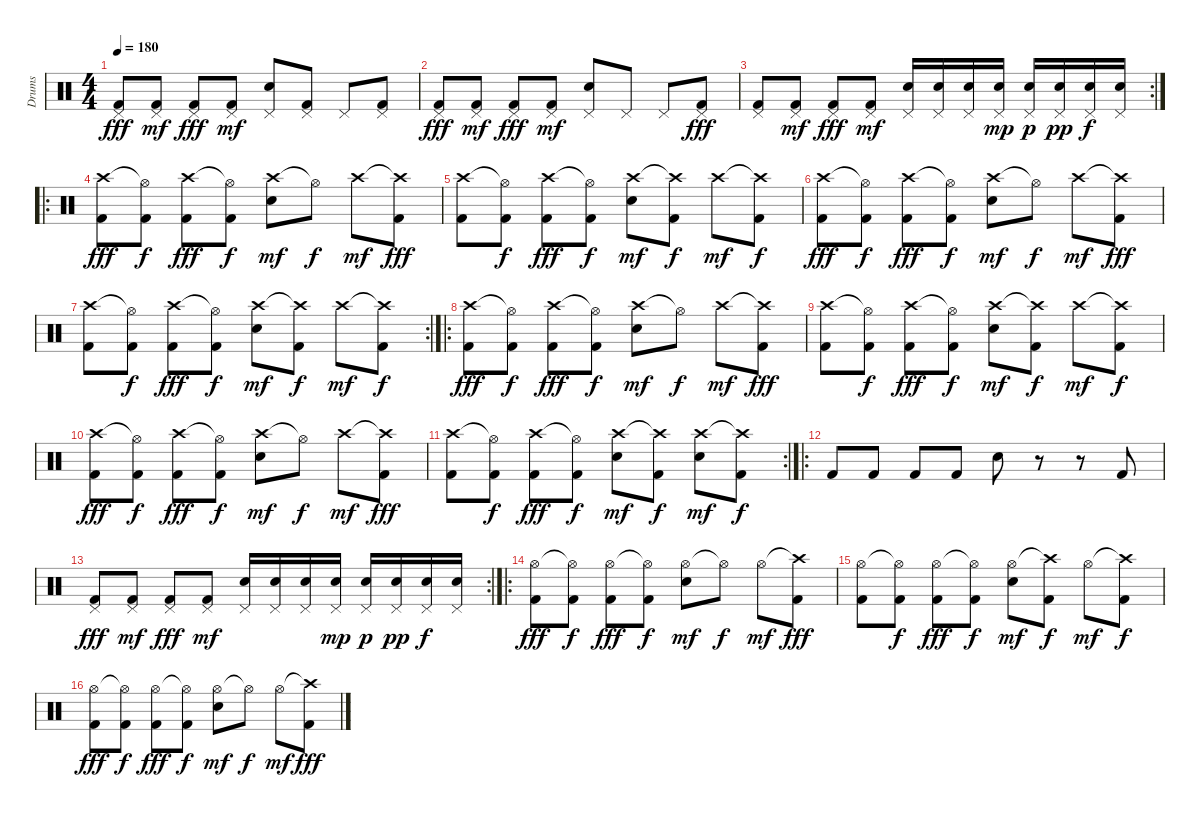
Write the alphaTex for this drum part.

\track ("Drums" "Drums") {instrument percussion}
\staff {score}
\articulation defaults
\ts (4 4)
\tempo 180
\clef neutral
\ks c
("Pedal Hi-Hat (hit)" "Kick (hit) 2").8{dy fff} ("Pedal Hi-Hat (hit)" "Kick (hit) 2").8{dy mf} ("Pedal Hi-Hat (hit)" "Kick (hit) 2").8{dy fff} ("Pedal Hi-Hat (hit)" "Kick (hit) 2").8{dy mf} ("Pedal Hi-Hat (hit)" "Electric Snare (hit)").8 ("Pedal Hi-Hat (hit)" "Kick (hit) 2").8 "Pedal Hi-Hat (hit)".8 ("Pedal Hi-Hat (hit)" "Kick (hit) 2").8 |
("Pedal Hi-Hat (hit)" "Kick (hit) 2").8{dy fff} ("Pedal Hi-Hat (hit)" "Kick (hit) 2").8{dy mf} ("Pedal Hi-Hat (hit)" "Kick (hit) 2").8{dy fff} ("Pedal Hi-Hat (hit)" "Kick (hit) 2").8{dy mf} ("Pedal Hi-Hat (hit)" "Electric Snare (hit)").8 "Pedal Hi-Hat (hit)".8 "Pedal Hi-Hat (hit)".8 ("Pedal Hi-Hat (hit)" "Kick (hit) 2").8{dy fff} |
\rc 2
("Pedal Hi-Hat (hit)" "Kick (hit) 2").8 ("Pedal Hi-Hat (hit)" "Kick (hit) 2").8{dy mf} ("Pedal Hi-Hat (hit)" "Kick (hit) 2").8{dy fff} ("Pedal Hi-Hat (hit)" "Kick (hit) 2").8{dy mf} ("Pedal Hi-Hat (hit)" "Electric Snare (hit)").16 ("Pedal Hi-Hat (hit)" "Electric Snare (hit)").16 ("Pedal Hi-Hat (hit)" "Electric Snare (hit)").16 ("Pedal Hi-Hat (hit)" "Electric Snare (hit)").16{dy mp} ("Pedal Hi-Hat (hit)" "Electric Snare (hit)").16{dy p} ("Pedal Hi-Hat (hit)" "Electric Snare (hit)").16{dy pp} ("Pedal Hi-Hat (hit)" "Electric Snare (hit)").16{dy f} ("Pedal Hi-Hat (hit)" "Electric Snare (hit)").16 |
\ro
("Crash high (hit)" "Kick (hit) 2").8{dy fff} ("Hi-Hat (open)"{t} "Kick (hit) 2").8{dy f} ("Crash high (hit)" "Kick (hit) 2").8{dy fff} ("Hi-Hat (open)"{t} "Kick (hit) 2").8{dy f} ("Crash high (hit)" "Electric Snare (hit)").8{dy mf} "Hi-Hat (open)"{t}.8{dy f} "Crash high (hit)".8{dy mf} ("Crash high (hit)"{t} "Kick (hit) 2").8{dy fff} |
("Crash high (hit)" "Kick (hit) 2").8 ("Hi-Hat (open)"{t} "Kick (hit) 2").8{dy f} ("Crash high (hit)" "Kick (hit) 2").8{dy fff} ("Hi-Hat (open)"{t} "Kick (hit) 2").8{dy f} ("Crash high (hit)" "Electric Snare (hit)").8{dy mf} ("Crash high (hit)"{t} "Kick (hit) 2").8{dy f} "Crash high (hit)".8{dy mf} ("Crash high (hit)"{t} "Kick (hit) 2").8{dy f} |
("Crash high (hit)" "Kick (hit) 2").8{dy fff} ("Hi-Hat (open)"{t} "Kick (hit) 2").8{dy f} ("Crash high (hit)" "Kick (hit) 2").8{dy fff} ("Hi-Hat (open)"{t} "Kick (hit) 2").8{dy f} ("Crash high (hit)" "Electric Snare (hit)").8{dy mf} "Hi-Hat (open)"{t}.8{dy f} "Crash high (hit)".8{dy mf} ("Crash high (hit)"{t} "Kick (hit) 2").8{dy fff} |
\rc 2
("Crash high (hit)" "Kick (hit) 2").8 ("Hi-Hat (open)"{t} "Kick (hit) 2").8{dy f} ("Crash high (hit)" "Kick (hit) 2").8{dy fff} ("Hi-Hat (open)"{t} "Kick (hit) 2").8{dy f} ("Crash high (hit)" "Electric Snare (hit)").8{dy mf} ("Crash high (hit)"{t} "Kick (hit) 2").8{dy f} "Crash high (hit)".8{dy mf} ("Crash high (hit)"{t} "Kick (hit) 2").8{dy f} |
\ro
("Crash high (hit)" "Kick (hit) 2").8{dy fff} ("Hi-Hat (open)"{t} "Kick (hit) 2").8{dy f} ("Crash high (hit)" "Kick (hit) 2").8{dy fff} ("Hi-Hat (open)"{t} "Kick (hit) 2").8{dy f} ("Crash high (hit)" "Electric Snare (hit)").8{dy mf} "Hi-Hat (open)"{t}.8{dy f} "Crash high (hit)".8{dy mf} ("Crash high (hit)"{t} "Kick (hit) 2").8{dy fff} |
("Crash high (hit)" "Kick (hit) 2").8 ("Hi-Hat (open)"{t} "Kick (hit) 2").8{dy f} ("Crash high (hit)" "Kick (hit) 2").8{dy fff} ("Hi-Hat (open)"{t} "Kick (hit) 2").8{dy f} ("Crash high (hit)" "Electric Snare (hit)").8{dy mf} ("Crash high (hit)"{t} "Kick (hit) 2").8{dy f} "Crash high (hit)".8{dy mf} ("Crash high (hit)"{t} "Kick (hit) 2").8{dy f} |
("Crash high (hit)" "Kick (hit) 2").8{dy fff} ("Hi-Hat (open)"{t} "Kick (hit) 2").8{dy f} ("Crash high (hit)" "Kick (hit) 2").8{dy fff} ("Hi-Hat (open)"{t} "Kick (hit) 2").8{dy f} ("Crash high (hit)" "Electric Snare (hit)").8{dy mf} "Hi-Hat (open)"{t}.8{dy f} "Crash high (hit)".8{dy mf} ("Crash high (hit)"{t} "Kick (hit) 2").8{dy fff} |
\rc 2
("Crash high (hit)" "Kick (hit) 2").8 ("Hi-Hat (open)"{t} "Kick (hit) 2").8{dy f} ("Crash high (hit)" "Kick (hit) 2").8{dy fff} ("Hi-Hat (open)"{t} "Kick (hit) 2").8{dy f} ("Crash high (hit)" "Electric Snare (hit)").8{dy mf} ("Crash high (hit)"{t} "Kick (hit) 2").8{dy f} ("Crash high (hit)" "Electric Snare (hit)").8{dy mf} ("Crash high (hit)"{t} "Kick (hit) 2").8{dy f} |
\ro "Kick (hit) 2".8 "Kick (hit) 2".8 "Kick (hit) 2".8 "Kick (hit) 2".8 "Electric Snare (hit)".8
r.8 r.8 "Kick (hit) 2".8 |
\rc 2
("Pedal Hi-Hat (hit)" "Kick (hit) 2").8{dy fff} ("Pedal Hi-Hat (hit)" "Kick (hit) 2").8{dy mf} ("Pedal Hi-Hat (hit)" "Kick (hit) 2").8{dy fff} ("Pedal Hi-Hat (hit)" "Kick (hit) 2").8{dy mf} ("Pedal Hi-Hat (hit)" "Electric Snare (hit)").16 ("Pedal Hi-Hat (hit)" "Electric Snare (hit)").16 ("Pedal Hi-Hat (hit)" "Electric Snare (hit)").16 ("Pedal Hi-Hat (hit)" "Electric Snare (hit)").16{dy mp} ("Pedal Hi-Hat (hit)" "Electric Snare (hit)").16{dy p} ("Pedal Hi-Hat (hit)" "Electric Snare (hit)").16{dy pp} ("Pedal Hi-Hat (hit)" "Electric Snare (hit)").16{dy f} ("Pedal Hi-Hat (hit)" "Electric Snare (hit)").16 |
\ro
("Hi-Hat (open)" "Kick (hit) 2").8{dy fff} ("Hi-Hat (open)"{t} "Kick (hit) 2").8{dy f} ("Hi-Hat (open)" "Kick (hit) 2").8{dy fff} ("Hi-Hat (open)"{t} "Kick (hit) 2").8{dy f} ("Hi-Hat (open)" "Electric Snare (hit)").8{dy mf} "Hi-Hat (open)"{t}.8{dy f} "Hi-Hat (open)".8{dy mf} ("Crash high (hit)"{t} "Kick (hit) 2").8{dy fff} |
("Hi-Hat (open)" "Kick (hit) 2").8 ("Hi-Hat (open)"{t} "Kick (hit) 2").8{dy f} ("Hi-Hat (open)" "Kick (hit) 2").8{dy fff} ("Hi-Hat (open)"{t} "Kick (hit) 2").8{dy f} ("Hi-Hat (open)" "Electric Snare (hit)").8{dy mf} ("Crash high (hit)"{t} "Kick (hit) 2").8{dy f} "Hi-Hat (open)".8{dy mf} ("Crash high (hit)"{t} "Kick (hit) 2").8{dy f} |
("Hi-Hat (open)" "Kick (hit) 2").8{dy fff} ("Hi-Hat (open)"{t} "Kick (hit) 2").8{dy f} ("Hi-Hat (open)" "Kick (hit) 2").8{dy fff} ("Hi-Hat (open)"{t} "Kick (hit) 2").8{dy f} ("Hi-Hat (open)" "Electric Snare (hit)").8{dy mf} "Hi-Hat (open)"{t}.8{dy f} "Hi-Hat (open)".8{dy mf} ("Crash high (hit)"{t} "Kick (hit) 2").8{dy fff}
